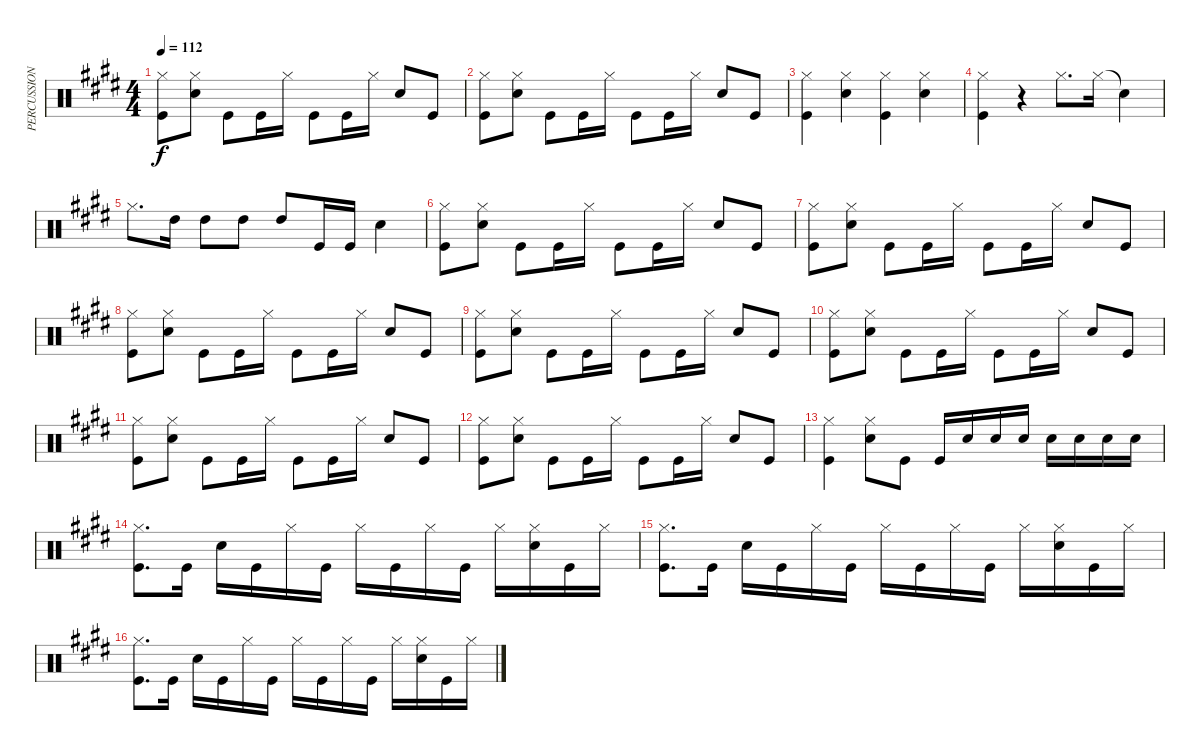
\track ("PERCUSSION" "PERCUSSION") {instrument percussion}
\staff {score}
\articulation defaults
\ts (4 4)
\tempo 112
\clef neutral
\ks c#minor
("Hi-Hat (closed)" "Kick (hit)").8{dy f} ("Hi-Hat (closed)" "Snare (hit) 2").8 "Kick (hit)".8 "Kick (hit)".16 "Hi-Hat (closed)".16 "Kick (hit)".8 "Kick (hit)".16 "Hi-Hat (closed)".16 "Snare (hit) 2".8 "Kick (hit)".8 |
("Hi-Hat (closed)" "Kick (hit)").8 ("Hi-Hat (closed)" "Snare (hit) 2").8 "Kick (hit)".8 "Kick (hit)".16 "Hi-Hat (closed)".16 "Kick (hit)".8 "Kick (hit)".16 "Hi-Hat (closed)".16 "Snare (hit) 2".8 "Kick (hit)".8 |
("Hi-Hat (closed)" "Kick (hit)").4 ("Hi-Hat (closed)" "Snare (hit) 2").4 ("Hi-Hat (closed)" "Kick (hit)").4 ("Hi-Hat (closed)" "Snare (hit) 2").4 |
("Hi-Hat (closed)" "Kick (hit)").4 r.4 "Hi-Hat (closed)".8{d} "Hi-Hat (closed)".16 "Snare (hit)"{t}.4 |
"Hi-Hat (closed)".8{d} "High Tom (hit)".16 "High Tom (hit)".8 "High Tom (hit)".8 "High Tom (hit)".8 "Kick (hit)".16 "Kick (hit)".16 "Snare (hit) 2".4 |
("Hi-Hat (closed)" "Kick (hit)").8 ("Hi-Hat (closed)" "Snare (hit) 2").8 "Kick (hit)".8 "Kick (hit)".16 "Hi-Hat (closed)".16 "Kick (hit)".8 "Kick (hit)".16 "Hi-Hat (closed)".16 "Snare (hit) 2".8 "Kick (hit)".8 |
("Hi-Hat (closed)" "Kick (hit)").8 ("Hi-Hat (closed)" "Snare (hit) 2").8 "Kick (hit)".8 "Kick (hit)".16 "Hi-Hat (closed)".16 "Kick (hit)".8 "Kick (hit)".16 "Hi-Hat (closed)".16 "Snare (hit) 2".8 "Kick (hit)".8 |
("Hi-Hat (closed)" "Kick (hit)").8 ("Hi-Hat (closed)" "Snare (hit) 2").8 "Kick (hit)".8 "Kick (hit)".16 "Hi-Hat (closed)".16 "Kick (hit)".8 "Kick (hit)".16 "Hi-Hat (closed)".16 "Snare (hit) 2".8 "Kick (hit)".8 |
("Hi-Hat (closed)" "Kick (hit)").8 ("Hi-Hat (closed)" "Snare (hit) 2").8 "Kick (hit)".8 "Kick (hit)".16 "Hi-Hat (closed)".16 "Kick (hit)".8 "Kick (hit)".16 "Hi-Hat (closed)".16 "Snare (hit) 2".8 "Kick (hit)".8 |
("Hi-Hat (closed)" "Kick (hit)").8 ("Hi-Hat (closed)" "Snare (hit) 2").8 "Kick (hit)".8 "Kick (hit)".16 "Hi-Hat (closed)".16 "Kick (hit)".8 "Kick (hit)".16 "Hi-Hat (closed)".16 "Snare (hit) 2".8 "Kick (hit)".8 |
("Hi-Hat (closed)" "Kick (hit)").8 ("Hi-Hat (closed)" "Snare (hit) 2").8 "Kick (hit)".8 "Kick (hit)".16 "Hi-Hat (closed)".16 "Kick (hit)".8 "Kick (hit)".16 "Hi-Hat (closed)".16 "Snare (hit) 2".8 "Kick (hit)".8 |
("Hi-Hat (closed)" "Kick (hit)").8 ("Hi-Hat (closed)" "Snare (hit) 2").8 "Kick (hit)".8 "Kick (hit)".16 "Hi-Hat (closed)".16 "Kick (hit)".8 "Kick (hit)".16 "Hi-Hat (closed)".16 "Snare (hit) 2".8 "Kick (hit)".8 |
("Hi-Hat (closed)" "Kick (hit)").4 ("Hi-Hat (closed)" "Snare (hit) 2").8 "Kick (hit)".8 "Kick (hit)".16 "Snare (hit) 2".16 "Snare (hit) 2".16 "Snare (hit) 2".16 "Snare (hit) 2".16 "Snare (hit) 2".16 "Snare (hit) 2".16 "Snare (hit) 2".16 |
("Hi-Hat (closed)" "Kick (hit)").8{d} "Kick (hit)".16 "Snare (hit) 2".16 "Kick (hit)".16 "Hi-Hat (closed)".16 "Kick (hit)".16 "Hi-Hat (closed)".16 "Kick (hit)".16 "Hi-Hat (closed)".16 "Kick (hit)".16 "Hi-Hat (closed)".16 ("Hi-Hat (closed)" "Snare (hit) 2").16 "Kick (hit)".16 "Hi-Hat (closed)".16 |
("Hi-Hat (closed)" "Kick (hit)").8{d} "Kick (hit)".16 "Snare (hit) 2".16 "Kick (hit)".16 "Hi-Hat (closed)".16 "Kick (hit)".16 "Hi-Hat (closed)".16 "Kick (hit)".16 "Hi-Hat (closed)".16 "Kick (hit)".16 "Hi-Hat (closed)".16 ("Hi-Hat (closed)" "Snare (hit) 2").16 "Kick (hit)".16 "Hi-Hat (closed)".16 |
("Hi-Hat (closed)" "Kick (hit)").8{d} "Kick (hit)".16 "Snare (hit) 2".16 "Kick (hit)".16 "Hi-Hat (closed)".16 "Kick (hit)".16 "Hi-Hat (closed)".16 "Kick (hit)".16 "Hi-Hat (closed)".16 "Kick (hit)".16 "Hi-Hat (closed)".16 ("Hi-Hat (closed)" "Snare (hit) 2").16 "Kick (hit)".16 "Hi-Hat (closed)".16
